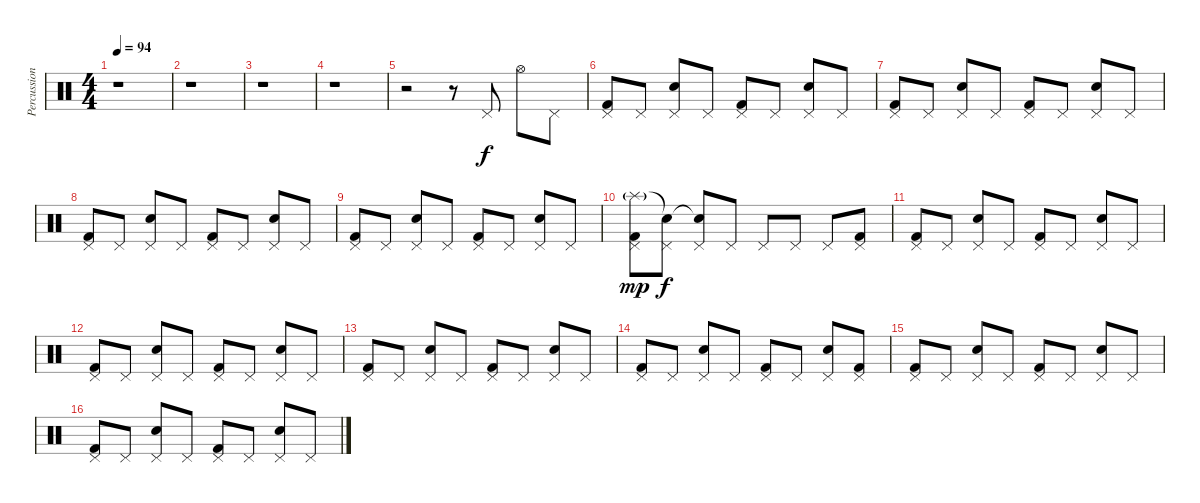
\track ("Percussions" "Percussion") {instrument percussion}
\staff {score}
\articulation defaults
\ts (4 4)
\tempo 94
\clef neutral
\ks c
r.1{dy f} |
r.1 |
r.1 |
r.1 |
r.2 r.8 "Pedal Hi-Hat (hit)".8 "Hi-Hat (open)".8 "Pedal Hi-Hat (hit)".8 |
("Pedal Hi-Hat (hit)" "Kick (hit) 2").8 "Pedal Hi-Hat (hit)".8 ("Pedal Hi-Hat (hit)" "Electric Snare (hit)").8 "Pedal Hi-Hat (hit)".8 ("Pedal Hi-Hat (hit)" "Kick (hit) 2").8 "Pedal Hi-Hat (hit)".8 ("Pedal Hi-Hat (hit)" "Electric Snare (hit)").8 "Pedal Hi-Hat (hit)".8 |
("Pedal Hi-Hat (hit)" "Kick (hit) 2").8 "Pedal Hi-Hat (hit)".8 ("Pedal Hi-Hat (hit)" "Electric Snare (hit)").8 "Pedal Hi-Hat (hit)".8 ("Pedal Hi-Hat (hit)" "Kick (hit) 2").8 "Pedal Hi-Hat (hit)".8 ("Pedal Hi-Hat (hit)" "Electric Snare (hit)").8 "Pedal Hi-Hat (hit)".8 |
("Pedal Hi-Hat (hit)" "Kick (hit) 2").8 "Pedal Hi-Hat (hit)".8 ("Pedal Hi-Hat (hit)" "Electric Snare (hit)").8 "Pedal Hi-Hat (hit)".8 ("Pedal Hi-Hat (hit)" "Kick (hit) 2").8 "Pedal Hi-Hat (hit)".8 ("Pedal Hi-Hat (hit)" "Electric Snare (hit)").8 "Pedal Hi-Hat (hit)".8 |
("Pedal Hi-Hat (hit)" "Kick (hit) 2").8 "Pedal Hi-Hat (hit)".8 ("Pedal Hi-Hat (hit)" "Electric Snare (hit)").8 "Pedal Hi-Hat (hit)".8 ("Pedal Hi-Hat (hit)" "Kick (hit) 2").8 "Pedal Hi-Hat (hit)".8 ("Pedal Hi-Hat (hit)" "Electric Snare (hit)").8 "Pedal Hi-Hat (hit)".8 |
("Pedal Hi-Hat (hit)" "Splash (hit)"{g} "Kick (hit) 2").8{dy mp} ("Pedal Hi-Hat (hit)" "Snare (hit)"{t}).8{dy f} ("Pedal Hi-Hat (hit)" "Snare (hit)"{t}).8 "Pedal Hi-Hat (hit)".8 "Pedal Hi-Hat (hit)".8 "Pedal Hi-Hat (hit)".8 "Pedal Hi-Hat (hit)".8 ("Pedal Hi-Hat (hit)" "Kick (hit) 2").8 |
("Pedal Hi-Hat (hit)" "Kick (hit) 2").8 "Pedal Hi-Hat (hit)".8 ("Pedal Hi-Hat (hit)" "Electric Snare (hit)").8 "Pedal Hi-Hat (hit)".8 ("Pedal Hi-Hat (hit)" "Kick (hit) 2").8 "Pedal Hi-Hat (hit)".8 ("Pedal Hi-Hat (hit)" "Electric Snare (hit)").8 "Pedal Hi-Hat (hit)".8 |
("Pedal Hi-Hat (hit)" "Kick (hit) 2").8 "Pedal Hi-Hat (hit)".8 ("Pedal Hi-Hat (hit)" "Electric Snare (hit)").8 "Pedal Hi-Hat (hit)".8 ("Pedal Hi-Hat (hit)" "Kick (hit) 2").8 "Pedal Hi-Hat (hit)".8 ("Pedal Hi-Hat (hit)" "Electric Snare (hit)").8 "Pedal Hi-Hat (hit)".8 |
("Pedal Hi-Hat (hit)" "Kick (hit) 2").8 "Pedal Hi-Hat (hit)".8 ("Pedal Hi-Hat (hit)" "Electric Snare (hit)").8 "Pedal Hi-Hat (hit)".8 ("Pedal Hi-Hat (hit)" "Kick (hit) 2").8 "Pedal Hi-Hat (hit)".8 ("Pedal Hi-Hat (hit)" "Electric Snare (hit)").8 "Pedal Hi-Hat (hit)".8 |
("Pedal Hi-Hat (hit)" "Kick (hit) 2").8 "Pedal Hi-Hat (hit)".8 ("Pedal Hi-Hat (hit)" "Electric Snare (hit)").8 "Pedal Hi-Hat (hit)".8 ("Pedal Hi-Hat (hit)" "Kick (hit) 2").8 "Pedal Hi-Hat (hit)".8 ("Pedal Hi-Hat (hit)" "Electric Snare (hit)").8 ("Pedal Hi-Hat (hit)" "Kick (hit) 2").8 |
("Pedal Hi-Hat (hit)" "Kick (hit) 2").8 "Pedal Hi-Hat (hit)".8 ("Pedal Hi-Hat (hit)" "Electric Snare (hit)").8 "Pedal Hi-Hat (hit)".8 ("Pedal Hi-Hat (hit)" "Kick (hit) 2").8 "Pedal Hi-Hat (hit)".8 ("Pedal Hi-Hat (hit)" "Electric Snare (hit)").8 "Pedal Hi-Hat (hit)".8 |
("Pedal Hi-Hat (hit)" "Kick (hit) 2").8 "Pedal Hi-Hat (hit)".8 ("Pedal Hi-Hat (hit)" "Electric Snare (hit)").8 "Pedal Hi-Hat (hit)".8 ("Pedal Hi-Hat (hit)" "Kick (hit) 2").8 "Pedal Hi-Hat (hit)".8 ("Pedal Hi-Hat (hit)" "Electric Snare (hit)").8 "Pedal Hi-Hat (hit)".8
